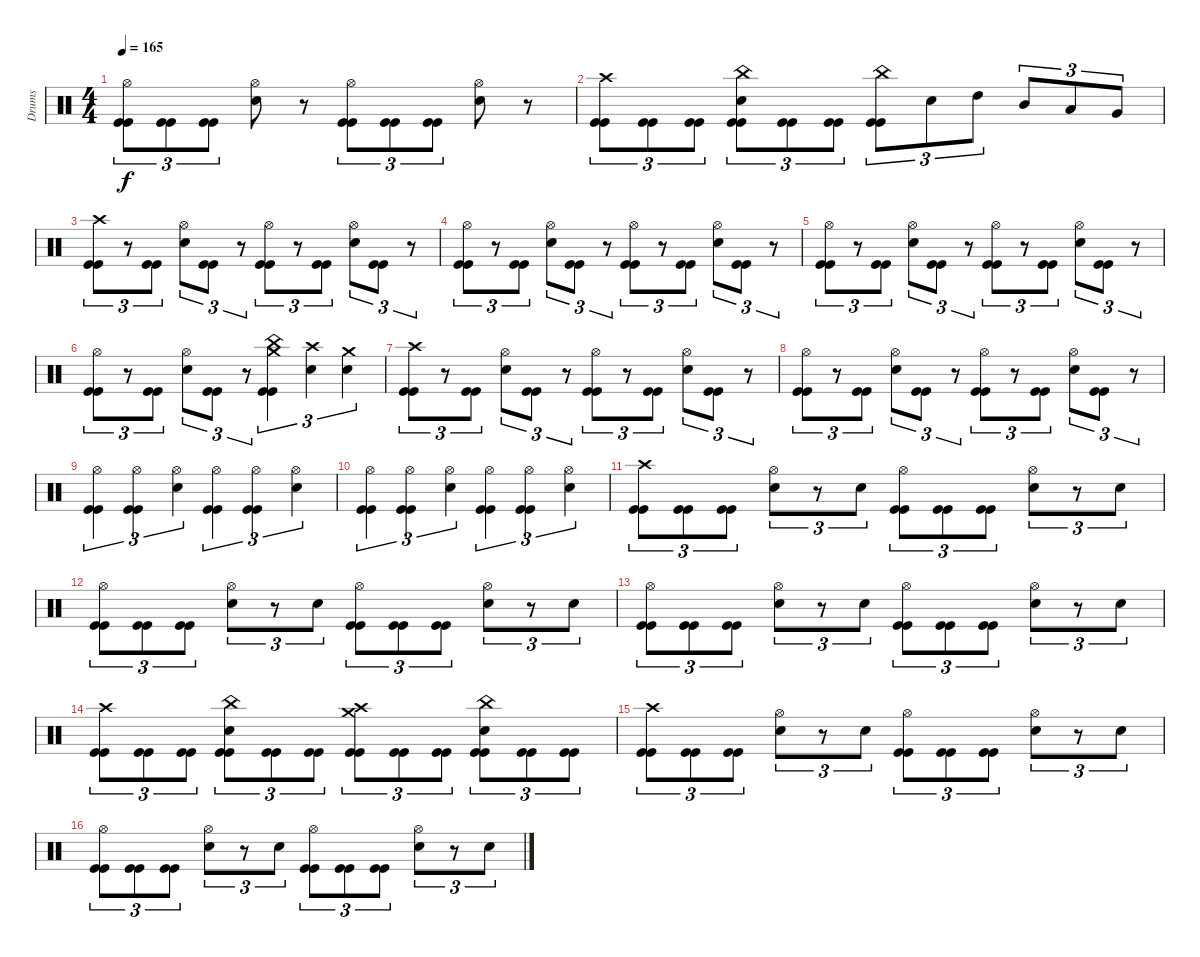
\track ("Drums" "Drums") {instrument percussion}
\staff {score}
\articulation defaults
\ts (4 4)
\tempo 165
\clef neutral
\ks c
("Kick (hit)" "Kick (hit)" "Hi-Hat (open)").8{tu (3 2) dy f} ("Kick (hit)" "Kick (hit)").8{tu (3 2)} ("Kick (hit)" "Kick (hit)").8{tu (3 2)} ("Snare (hit) 2" "Hi-Hat (open)").8 r.8 ("Kick (hit)" "Kick (hit)" "Hi-Hat (open)").8{tu (3 2)} ("Kick (hit)" "Kick (hit)").8{tu (3 2)} ("Kick (hit)" "Kick (hit)").8{tu (3 2)} ("Snare (hit) 2" "Hi-Hat (open)").8 r.8 |
("Kick (hit)" "Kick (hit)" "Crash high (hit)").8{tu (3 2)} ("Kick (hit)" "Kick (hit)").8{tu (3 2)} ("Kick (hit)" "Kick (hit)").8{tu (3 2)} ("Kick (hit)" "Kick (hit)" "Snare (hit) 2" "China (hit)").8{tu (3 2)} ("Kick (hit)" "Kick (hit)").8{tu (3 2)} ("Kick (hit)" "Kick (hit)").8{tu (3 2)} ("Kick (hit)" "Kick (hit)" "China (hit)").8{tu (3 2)} "Snare (hit) 2".8{tu (3 2)} "High Tom (hit)".8{tu (3 2)} "Mid Tom (hit)".8{tu (3 2)} "Low Tom (hit)".8{tu (3 2)} "Very Low Tom (hit)".8{tu (3 2)} |
("Kick (hit)" "Kick (hit)" "Crash high (hit)").8{tu (3 2)} r.8{tu (3 2)} ("Kick (hit)" "Kick (hit)").8{tu (3 2)} ("Snare (hit) 2" "Hi-Hat (open)").8{tu (3 2)} ("Kick (hit)" "Kick (hit)").8{tu (3 2)} r.8{tu (3 2)} ("Kick (hit)" "Kick (hit)" "Hi-Hat (open)").8{tu (3 2)} r.8{tu (3 2)} ("Kick (hit)" "Kick (hit)").8{tu (3 2)} ("Snare (hit) 2" "Hi-Hat (open)").8{tu (3 2)} ("Kick (hit)" "Kick (hit)").8{tu (3 2)} r.8{tu (3 2)} |
("Kick (hit)" "Kick (hit)" "Hi-Hat (open)").8{tu (3 2)} r.8{tu (3 2)} ("Kick (hit)" "Kick (hit)").8{tu (3 2)} ("Snare (hit) 2" "Hi-Hat (open)").8{tu (3 2)} ("Kick (hit)" "Kick (hit)").8{tu (3 2)} r.8{tu (3 2)} ("Kick (hit)" "Kick (hit)" "Hi-Hat (open)").8{tu (3 2)} r.8{tu (3 2)} ("Kick (hit)" "Kick (hit)").8{tu (3 2)} ("Snare (hit) 2" "Hi-Hat (open)").8{tu (3 2)} ("Kick (hit)" "Kick (hit)").8{tu (3 2)} r.8{tu (3 2)} |
("Kick (hit)" "Kick (hit)" "Hi-Hat (open)").8{tu (3 2)} r.8{tu (3 2)} ("Kick (hit)" "Kick (hit)").8{tu (3 2)} ("Snare (hit) 2" "Hi-Hat (open)").8{tu (3 2)} ("Kick (hit)" "Kick (hit)").8{tu (3 2)} r.8{tu (3 2)} ("Kick (hit)" "Kick (hit)" "Hi-Hat (open)").8{tu (3 2)} r.8{tu (3 2)} ("Kick (hit)" "Kick (hit)").8{tu (3 2)} ("Snare (hit) 2" "Hi-Hat (open)").8{tu (3 2)} ("Kick (hit)" "Kick (hit)").8{tu (3 2)} r.8{tu (3 2)} |
("Kick (hit)" "Kick (hit)" "Hi-Hat (open)").8{tu (3 2)} r.8{tu (3 2)} ("Kick (hit)" "Kick (hit)").8{tu (3 2)} ("Snare (hit) 2" "Hi-Hat (open)").8{tu (3 2)} ("Kick (hit)" "Kick (hit)").8{tu (3 2)} r.8{tu (3 2)} ("Kick (hit)" "Kick (hit)" "China (hit)" "Crash medium (hit)").4{tu (3 2)} ("Snare (hit) 2" "Crash high (hit)").4{tu (3 2)} ("Snare (hit) 2" "Crash medium (hit)").4{tu (3 2)} |
("Kick (hit)" "Kick (hit)" "Crash high (hit)").8{tu (3 2)} r.8{tu (3 2)} ("Kick (hit)" "Kick (hit)").8{tu (3 2)} ("Snare (hit) 2" "Hi-Hat (open)").8{tu (3 2)} ("Kick (hit)" "Kick (hit)").8{tu (3 2)} r.8{tu (3 2)} ("Kick (hit)" "Kick (hit)" "Hi-Hat (open)").8{tu (3 2)} r.8{tu (3 2)} ("Kick (hit)" "Kick (hit)").8{tu (3 2)} ("Snare (hit) 2" "Hi-Hat (open)").8{tu (3 2)} ("Kick (hit)" "Kick (hit)").8{tu (3 2)} r.8{tu (3 2)} |
("Kick (hit)" "Kick (hit)" "Hi-Hat (open)").8{tu (3 2)} r.8{tu (3 2)} ("Kick (hit)" "Kick (hit)").8{tu (3 2)} ("Snare (hit) 2" "Hi-Hat (open)").8{tu (3 2)} ("Kick (hit)" "Kick (hit)").8{tu (3 2)} r.8{tu (3 2)} ("Kick (hit)" "Kick (hit)" "Hi-Hat (open)").8{tu (3 2)} r.8{tu (3 2)} ("Kick (hit)" "Kick (hit)").8{tu (3 2)} ("Snare (hit) 2" "Hi-Hat (open)").8{tu (3 2)} ("Kick (hit)" "Kick (hit)").8{tu (3 2)} r.8{tu (3 2)} |
("Kick (hit)" "Kick (hit)" "Hi-Hat (open)").4{tu (3 2)} ("Kick (hit)" "Kick (hit)" "Hi-Hat (open)").4{tu (3 2)} ("Snare (hit) 2" "Hi-Hat (open)").4{tu (3 2)} ("Kick (hit)" "Kick (hit)" "Hi-Hat (open)").4{tu (3 2)} ("Kick (hit)" "Kick (hit)" "Hi-Hat (open)").4{tu (3 2)} ("Snare (hit) 2" "Hi-Hat (open)").4{tu (3 2)} |
("Kick (hit)" "Kick (hit)" "Hi-Hat (open)").4{tu (3 2)} ("Kick (hit)" "Kick (hit)" "Hi-Hat (open)").4{tu (3 2)} ("Snare (hit) 2" "Hi-Hat (open)").4{tu (3 2)} ("Kick (hit)" "Kick (hit)" "Hi-Hat (open)").4{tu (3 2)} ("Kick (hit)" "Kick (hit)" "Hi-Hat (open)").4{tu (3 2)} ("Snare (hit) 2" "Hi-Hat (open)").4{tu (3 2)} |
("Kick (hit)" "Kick (hit)" "Crash high (hit)").8{tu (3 2)} ("Kick (hit)" "Kick (hit)").8{tu (3 2)} ("Kick (hit)" "Kick (hit)").8{tu (3 2)} ("Snare (hit) 2" "Hi-Hat (open)").8{tu (3 2)} r.8{tu (3 2)} "Snare (hit) 2".8{tu (3 2)} ("Kick (hit)" "Kick (hit)" "Hi-Hat (open)").8{tu (3 2)} ("Kick (hit)" "Kick (hit)").8{tu (3 2)} ("Kick (hit)" "Kick (hit)").8{tu (3 2)} ("Snare (hit) 2" "Hi-Hat (open)").8{tu (3 2)} r.8{tu (3 2)} "Snare (hit) 2".8{tu (3 2)} |
("Kick (hit)" "Kick (hit)" "Hi-Hat (open)").8{tu (3 2)} ("Kick (hit)" "Kick (hit)").8{tu (3 2)} ("Kick (hit)" "Kick (hit)").8{tu (3 2)} ("Snare (hit) 2" "Hi-Hat (open)").8{tu (3 2)} r.8{tu (3 2)} "Snare (hit) 2".8{tu (3 2)} ("Kick (hit)" "Kick (hit)" "Hi-Hat (open)").8{tu (3 2)} ("Kick (hit)" "Kick (hit)").8{tu (3 2)} ("Kick (hit)" "Kick (hit)").8{tu (3 2)} ("Snare (hit) 2" "Hi-Hat (open)").8{tu (3 2)} r.8{tu (3 2)} "Snare (hit) 2".8{tu (3 2)} |
("Kick (hit)" "Kick (hit)" "Hi-Hat (open)").8{tu (3 2)} ("Kick (hit)" "Kick (hit)").8{tu (3 2)} ("Kick (hit)" "Kick (hit)").8{tu (3 2)} ("Snare (hit) 2" "Hi-Hat (open)").8{tu (3 2)} r.8{tu (3 2)} "Snare (hit) 2".8{tu (3 2)} ("Kick (hit)" "Kick (hit)" "Hi-Hat (open)").8{tu (3 2)} ("Kick (hit)" "Kick (hit)").8{tu (3 2)} ("Kick (hit)" "Kick (hit)").8{tu (3 2)} ("Snare (hit) 2" "Hi-Hat (open)").8{tu (3 2)} r.8{tu (3 2)} "Snare (hit) 2".8{tu (3 2)} |
("Kick (hit)" "Kick (hit)" "Crash high (hit)").8{tu (3 2)} ("Kick (hit)" "Kick (hit)").8{tu (3 2)} ("Kick (hit)" "Kick (hit)").8{tu (3 2)} ("Kick (hit)" "Kick (hit)" "Snare (hit) 2" "China (hit)").8{tu (3 2)} ("Kick (hit)" "Kick (hit)").8{tu (3 2)} ("Kick (hit)" "Kick (hit)").8{tu (3 2)} ("Kick (hit)" "Kick (hit)" "Crash high (hit)" "Crash medium (hit)").8{tu (3 2)} ("Kick (hit)" "Kick (hit)").8{tu (3 2)} ("Kick (hit)" "Kick (hit)").8{tu (3 2)} ("Kick (hit)" "Kick (hit)" "Snare (hit) 2" "China (hit)").8{tu (3 2)} ("Kick (hit)" "Kick (hit)").8{tu (3 2)} ("Kick (hit)" "Kick (hit)").8{tu (3 2)} |
("Kick (hit)" "Kick (hit)" "Crash high (hit)").8{tu (3 2)} ("Kick (hit)" "Kick (hit)").8{tu (3 2)} ("Kick (hit)" "Kick (hit)").8{tu (3 2)} ("Snare (hit) 2" "Hi-Hat (open)").8{tu (3 2)} r.8{tu (3 2)} "Snare (hit) 2".8{tu (3 2)} ("Kick (hit)" "Kick (hit)" "Hi-Hat (open)").8{tu (3 2)} ("Kick (hit)" "Kick (hit)").8{tu (3 2)} ("Kick (hit)" "Kick (hit)").8{tu (3 2)} ("Snare (hit) 2" "Hi-Hat (open)").8{tu (3 2)} r.8{tu (3 2)} "Snare (hit) 2".8{tu (3 2)} |
("Kick (hit)" "Kick (hit)" "Hi-Hat (open)").8{tu (3 2)} ("Kick (hit)" "Kick (hit)").8{tu (3 2)} ("Kick (hit)" "Kick (hit)").8{tu (3 2)} ("Snare (hit) 2" "Hi-Hat (open)").8{tu (3 2)} r.8{tu (3 2)} "Snare (hit) 2".8{tu (3 2)} ("Kick (hit)" "Kick (hit)" "Hi-Hat (open)").8{tu (3 2)} ("Kick (hit)" "Kick (hit)").8{tu (3 2)} ("Kick (hit)" "Kick (hit)").8{tu (3 2)} ("Snare (hit) 2" "Hi-Hat (open)").8{tu (3 2)} r.8{tu (3 2)} "Snare (hit) 2".8{tu (3 2)}
